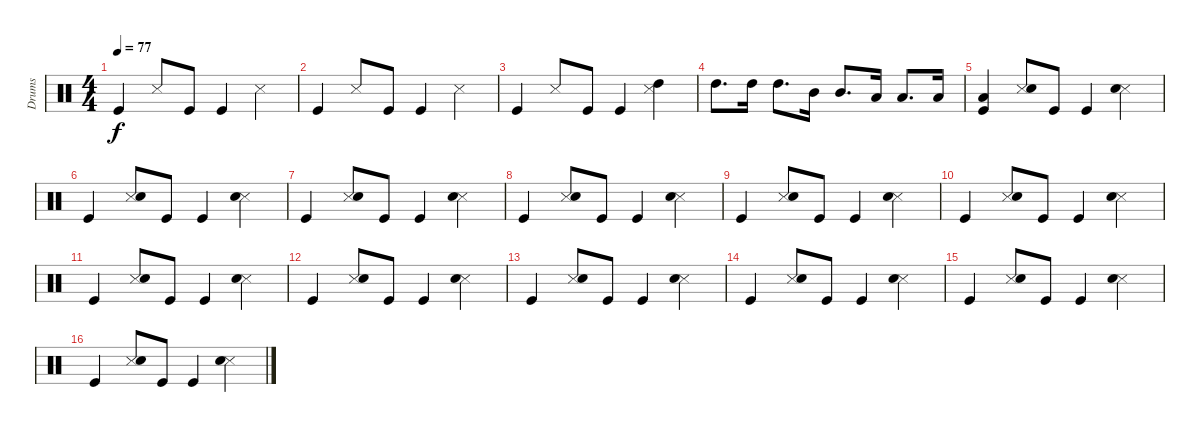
\track ("Drums" "Drums") {instrument percussion}
\staff {score}
\articulation defaults
\ts (4 4)
\tempo 77
\clef neutral
\ks c "Kick (hit)".4{dy f} "Snare (side stick) 3".8 "Kick (hit)".8 "Kick (hit)".4 "Snare (side stick) 3".4
|
"Kick (hit)".4 "Snare (side stick) 3".8 "Kick (hit)".8 "Kick (hit)".4 "Snare (side stick) 3".4 |
"Kick (hit)".4 "Snare (side stick) 3".8 "Kick (hit)".8 "Kick (hit)".4 ("High Tom (hit)" "Snare (side stick) 3").4 |
"High Tom (hit)".8{d} "High Tom (hit)".16 "High Tom (hit)".8{d} "Mid Tom (hit)".16 "Mid Tom (hit)".8{d} "Low Tom (hit)".16 "Low Tom (hit)".8{d} "Low Floor Tom (hit)".16 |
("Low Floor Tom (hit)" "Kick (hit)").4 ("Snare (side stick) 3" "Snare (hit) 2").8 "Kick (hit)".8 "Kick (hit)".4 ("Snare (side stick) 3" "Snare (hit) 2").4 |
"Kick (hit)".4 ("Snare (side stick) 3" "Snare (hit) 2").8 "Kick (hit)".8 "Kick (hit)".4 ("Snare (side stick) 3" "Snare (hit) 2").4 |
"Kick (hit)".4 ("Snare (side stick) 3" "Snare (hit) 2").8 "Kick (hit)".8 "Kick (hit)".4 ("Snare (side stick) 3" "Snare (hit) 2").4 |
"Kick (hit)".4 ("Snare (side stick) 3" "Snare (hit) 2").8 "Kick (hit)".8 "Kick (hit)".4 ("Snare (side stick) 3" "Snare (hit) 2").4 |
"Kick (hit)".4 ("Snare (side stick) 3" "Snare (hit) 2").8 "Kick (hit)".8 "Kick (hit)".4 ("Snare (side stick) 3" "Snare (hit) 2").4 |
"Kick (hit)".4 ("Snare (side stick) 3" "Snare (hit) 2").8 "Kick (hit)".8 "Kick (hit)".4 ("Snare (side stick) 3" "Snare (hit) 2").4 |
"Kick (hit)".4 ("Snare (side stick) 3" "Snare (hit) 2").8 "Kick (hit)".8 "Kick (hit)".4 ("Snare (side stick) 3" "Snare (hit) 2").4 |
"Kick (hit)".4 ("Snare (side stick) 3" "Snare (hit) 2").8 "Kick (hit)".8 "Kick (hit)".4 ("Snare (side stick) 3" "Snare (hit) 2").4 |
"Kick (hit)".4 ("Snare (side stick) 3" "Snare (hit) 2").8 "Kick (hit)".8 "Kick (hit)".4 ("Snare (side stick) 3" "Snare (hit) 2").4 |
"Kick (hit)".4 ("Snare (side stick) 3" "Snare (hit) 2").8 "Kick (hit)".8 "Kick (hit)".4 ("Snare (side stick) 3" "Snare (hit) 2").4 |
"Kick (hit)".4 ("Snare (side stick) 3" "Snare (hit) 2").8 "Kick (hit)".8 "Kick (hit)".4 ("Snare (side stick) 3" "Snare (hit) 2").4 |
"Kick (hit)".4 ("Snare (side stick) 3" "Snare (hit) 2").8 "Kick (hit)".8 "Kick (hit)".4 ("Snare (side stick) 3" "Snare (hit) 2").4
